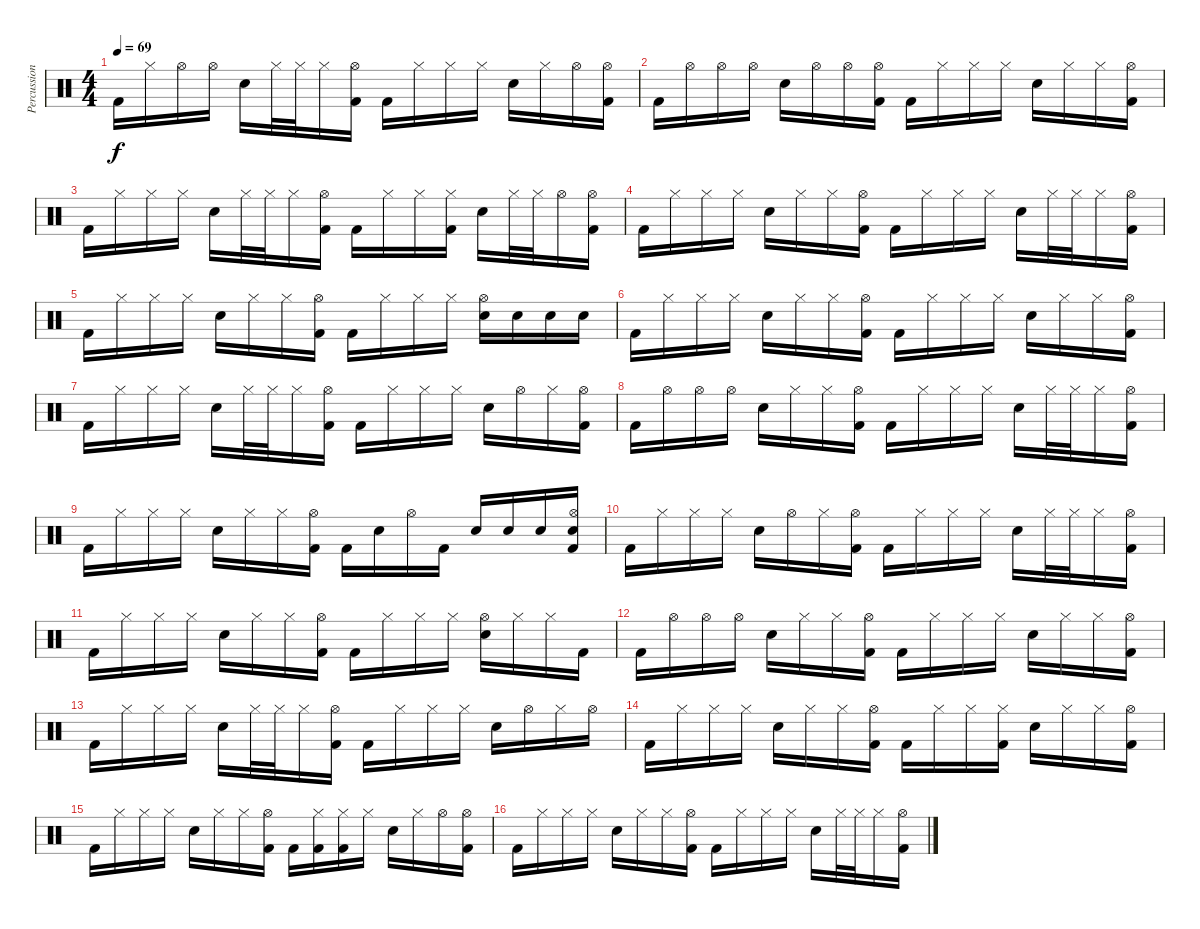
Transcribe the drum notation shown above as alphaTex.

\track ("Percussions" "Percussion") {instrument percussion}
\staff {score}
\articulation defaults
\ts (4 4)
\tempo 69
\clef neutral
\ks c "Kick (hit) 2".16{dy f} "Hi-Hat (closed)".16 "Hi-Hat (open)".16 "Hi-Hat (open)".16 "Electric Snare (hit)".16 "Hi-Hat (closed)".32 "Hi-Hat (closed)".32 "Hi-Hat (closed)".16
("Hi-Hat (open)" "Kick (hit) 2").16 "Kick (hit) 2".16 "Hi-Hat (closed)".16 "Hi-Hat (closed)".16 "Hi-Hat (closed)".16 "Electric Snare (hit)".16 "Hi-Hat (closed)".16 "Hi-Hat (open)".16 ("Hi-Hat (open)" "Kick (hit) 2").16 |
"Kick (hit) 2".16 "Hi-Hat (open)".16 "Hi-Hat (open)".16 "Hi-Hat (open)".16 "Electric Snare (hit)".16 "Hi-Hat (open)".16 "Hi-Hat (open)".16 ("Hi-Hat (open)" "Kick (hit) 2").16 "Kick (hit) 2".16 "Hi-Hat (closed)".16 "Hi-Hat (closed)".16 "Hi-Hat (closed)".16 "Electric Snare (hit)".16 "Hi-Hat (closed)".16 "Hi-Hat (closed)".16 ("Hi-Hat (open)" "Kick (hit) 2").16 |
"Kick (hit) 2".16 "Hi-Hat (closed)".16 "Hi-Hat (closed)".16 "Hi-Hat (closed)".16 "Electric Snare (hit)".16 "Hi-Hat (closed)".32 "Hi-Hat (closed)".32 "Hi-Hat (closed)".16 ("Hi-Hat (open)" "Kick (hit) 2").16 "Kick (hit) 2".16 "Hi-Hat (closed)".16 "Hi-Hat (closed)".16 ("Hi-Hat (closed)" "Kick (hit) 2").16 "Electric Snare (hit)".16 "Hi-Hat (closed)".32 "Hi-Hat (closed)".32 "Hi-Hat (open)".16 ("Hi-Hat (open)" "Kick (hit) 2").16 |
"Kick (hit) 2".16 "Hi-Hat (closed)".16 "Hi-Hat (closed)".16 "Hi-Hat (closed)".16 "Electric Snare (hit)".16 "Hi-Hat (closed)".16 "Hi-Hat (closed)".16 ("Hi-Hat (open)" "Kick (hit) 2").16 "Kick (hit) 2".16 "Hi-Hat (closed)".16 "Hi-Hat (closed)".16 "Hi-Hat (closed)".16 "Electric Snare (hit)".16 "Hi-Hat (closed)".32 "Hi-Hat (closed)".32 "Hi-Hat (closed)".16 ("Hi-Hat (open)" "Kick (hit) 2").16 |
"Kick (hit) 2".16 "Hi-Hat (closed)".16 "Hi-Hat (closed)".16 "Hi-Hat (closed)".16 "Electric Snare (hit)".16 "Hi-Hat (closed)".16 "Hi-Hat (closed)".16 ("Hi-Hat (open)" "Kick (hit) 2").16 "Kick (hit) 2".16 "Hi-Hat (closed)".16 "Hi-Hat (closed)".16 "Hi-Hat (closed)".16 ("Hi-Hat (open)" "Electric Snare (hit)").16 "Electric Snare (hit)".16 "Electric Snare (hit)".16 "Electric Snare (hit)".16 |
"Kick (hit) 2".16 "Hi-Hat (closed)".16 "Hi-Hat (closed)".16 "Hi-Hat (closed)".16 "Electric Snare (hit)".16 "Hi-Hat (closed)".16 "Hi-Hat (closed)".16 ("Hi-Hat (open)" "Kick (hit) 2").16 "Kick (hit) 2".16 "Hi-Hat (closed)".16 "Hi-Hat (closed)".16 "Hi-Hat (closed)".16 "Electric Snare (hit)".16 "Hi-Hat (closed)".16 "Hi-Hat (closed)".16 ("Hi-Hat (open)" "Kick (hit) 2").16 |
"Kick (hit) 2".16 "Hi-Hat (closed)".16 "Hi-Hat (closed)".16 "Hi-Hat (closed)".16 "Electric Snare (hit)".16 "Hi-Hat (closed)".32 "Hi-Hat (closed)".32 "Hi-Hat (closed)".16 ("Hi-Hat (open)" "Kick (hit) 2").16 "Kick (hit) 2".16 "Hi-Hat (closed)".16 "Hi-Hat (closed)".16 "Hi-Hat (closed)".16 "Electric Snare (hit)".16 "Hi-Hat (open)".16 "Hi-Hat (closed)".16 ("Hi-Hat (open)" "Kick (hit) 2").16 |
"Kick (hit) 2".16 "Hi-Hat (open)".16 "Hi-Hat (open)".16 "Hi-Hat (open)".16 "Electric Snare (hit)".16 "Hi-Hat (closed)".16 "Hi-Hat (closed)".16 ("Hi-Hat (open)" "Kick (hit) 2").16 "Kick (hit) 2".16 "Hi-Hat (closed)".16 "Hi-Hat (closed)".16 "Hi-Hat (closed)".16 "Electric Snare (hit)".16 "Hi-Hat (closed)".32 "Hi-Hat (closed)".32 "Hi-Hat (closed)".16 ("Hi-Hat (open)" "Kick (hit) 2").16 |
"Kick (hit) 2".16 "Hi-Hat (closed)".16 "Hi-Hat (closed)".16 "Hi-Hat (closed)".16 "Electric Snare (hit)".16 "Hi-Hat (closed)".16 "Hi-Hat (closed)".16 ("Hi-Hat (open)" "Kick (hit) 2").16 "Kick (hit) 2".16 "Electric Snare (hit)".16 "Hi-Hat (open)".16 "Kick (hit) 2".16 "Electric Snare (hit)".16 "Electric Snare (hit)".16 "Electric Snare (hit)".16 ("Hi-Hat (open)" "Electric Snare (hit)" "Kick (hit) 2").16 |
"Kick (hit) 2".16 "Hi-Hat (closed)".16 "Hi-Hat (closed)".16 "Hi-Hat (closed)".16 "Electric Snare (hit)".16 "Hi-Hat (open)".16 "Hi-Hat (closed)".16 ("Hi-Hat (open)" "Kick (hit) 2").16 "Kick (hit) 2".16 "Hi-Hat (closed)".16 "Hi-Hat (closed)".16 "Hi-Hat (closed)".16 "Electric Snare (hit)".16 "Hi-Hat (closed)".32 "Hi-Hat (closed)".32 "Hi-Hat (closed)".16 ("Hi-Hat (open)" "Kick (hit) 2").16 |
"Kick (hit) 2".16 "Hi-Hat (closed)".16 "Hi-Hat (closed)".16 "Hi-Hat (closed)".16 "Electric Snare (hit)".16 "Hi-Hat (closed)".16 "Hi-Hat (closed)".16 ("Hi-Hat (open)" "Kick (hit) 2").16 "Kick (hit) 2".16 "Hi-Hat (closed)".16 "Hi-Hat (closed)".16 "Hi-Hat (closed)".16 ("Hi-Hat (open)" "Electric Snare (hit)").16 "Hi-Hat (closed)".16 "Hi-Hat (closed)".16 "Kick (hit) 2".16 |
"Kick (hit) 2".16 "Hi-Hat (open)".16 "Hi-Hat (open)".16 "Hi-Hat (open)".16 "Electric Snare (hit)".16 "Hi-Hat (closed)".16 "Hi-Hat (closed)".16 ("Hi-Hat (open)" "Kick (hit) 2").16 "Kick (hit) 2".16 "Hi-Hat (closed)".16 "Hi-Hat (closed)".16 "Hi-Hat (closed)".16 "Electric Snare (hit)".16 "Hi-Hat (closed)".16 "Hi-Hat (closed)".16 ("Hi-Hat (open)" "Kick (hit) 2").16 |
"Kick (hit) 2".16 "Hi-Hat (closed)".16 "Hi-Hat (closed)".16 "Hi-Hat (closed)".16 "Electric Snare (hit)".16 "Hi-Hat (closed)".32 "Hi-Hat (closed)".32 "Hi-Hat (closed)".16 ("Hi-Hat (open)" "Kick (hit) 2").16 "Kick (hit) 2".16 "Hi-Hat (closed)".16 "Hi-Hat (closed)".16 "Hi-Hat (closed)".16 "Electric Snare (hit)".16 "Hi-Hat (open)".16 "Hi-Hat (closed)".16 "Hi-Hat (open)".16 |
"Kick (hit) 2".16 "Hi-Hat (closed)".16 "Hi-Hat (closed)".16 "Hi-Hat (closed)".16 "Electric Snare (hit)".16 "Hi-Hat (closed)".16 "Hi-Hat (closed)".16 ("Hi-Hat (open)" "Kick (hit) 2").16 "Kick (hit) 2".16 "Hi-Hat (closed)".16 "Hi-Hat (closed)".16 ("Hi-Hat (closed)" "Kick (hit) 2").16 "Electric Snare (hit)".16 "Hi-Hat (closed)".16 "Hi-Hat (closed)".16 ("Hi-Hat (open)" "Kick (hit) 2").16 |
"Kick (hit) 2".16 "Hi-Hat (closed)".16 "Hi-Hat (closed)".16 "Hi-Hat (closed)".16 "Electric Snare (hit)".16 "Hi-Hat (closed)".16 "Hi-Hat (closed)".16 ("Hi-Hat (open)" "Kick (hit) 2").16 "Kick (hit) 2".16 ("Hi-Hat (closed)" "Kick (hit) 2").16 ("Hi-Hat (closed)" "Kick (hit) 2").16 "Hi-Hat (closed)".16 "Electric Snare (hit)".16 "Hi-Hat (closed)".16 "Hi-Hat (open)".16 ("Hi-Hat (open)" "Kick (hit) 2").16 |
"Kick (hit) 2".16 "Hi-Hat (closed)".16 "Hi-Hat (closed)".16 "Hi-Hat (closed)".16 "Electric Snare (hit)".16 "Hi-Hat (closed)".16 "Hi-Hat (closed)".16 ("Hi-Hat (open)" "Kick (hit) 2").16 "Kick (hit) 2".16 "Hi-Hat (closed)".16 "Hi-Hat (closed)".16 "Hi-Hat (closed)".16 "Electric Snare (hit)".16 "Hi-Hat (closed)".32 "Hi-Hat (closed)".32 "Hi-Hat (closed)".16 ("Hi-Hat (open)" "Kick (hit) 2").16
